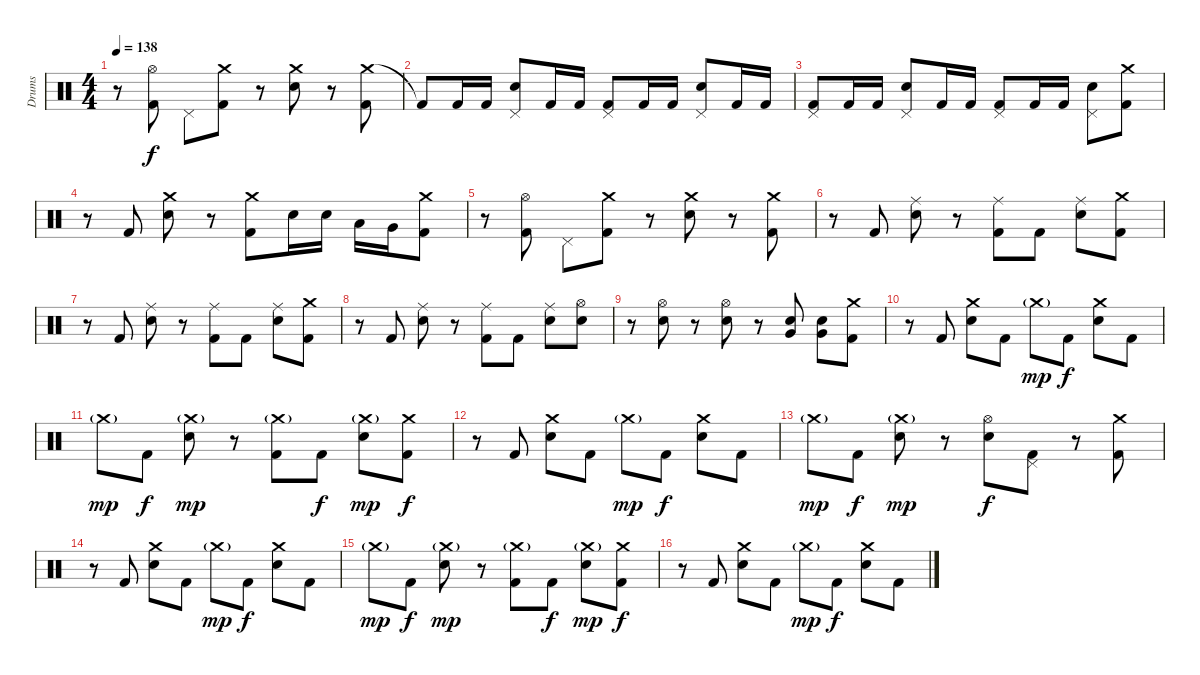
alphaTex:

\track ("Drums" "Drums") {instrument percussion}
\staff {score}
\articulation defaults
\ts (4 4)
\tempo 138
\clef neutral
\ks c
r.8{dy f} ("Hi-Hat (open)" "Kick (hit) 2").8 "Pedal Hi-Hat (hit)".8 ("Crash medium (hit)" "Kick (hit) 2").8 r.8 ("Crash medium (hit)" "Electric Snare (hit)").8 r.8 ("Crash medium (hit)" "Kick (hit) 2").8 |
"Kick (hit) 2"{t}.8 "Kick (hit) 2".16 "Kick (hit) 2".16 ("Pedal Hi-Hat (hit)" "Electric Snare (hit)").8 "Kick (hit) 2".16 "Kick (hit) 2".16 ("Pedal Hi-Hat (hit)" "Kick (hit) 2").8 "Kick (hit) 2".16 "Kick (hit) 2".16 ("Pedal Hi-Hat (hit)" "Electric Snare (hit)").8 "Kick (hit) 2".16 "Kick (hit) 2".16 |
("Pedal Hi-Hat (hit)" "Kick (hit) 2").8 "Kick (hit) 2".16 "Kick (hit) 2".16 ("Pedal Hi-Hat (hit)" "Electric Snare (hit)").8 "Kick (hit) 2".16 "Kick (hit) 2".16 ("Pedal Hi-Hat (hit)" "Kick (hit) 2").8 "Kick (hit) 2".16 "Kick (hit) 2".16 ("Pedal Hi-Hat (hit)" "Electric Snare (hit)").8 ("Crash medium (hit)" "Kick (hit) 2").8 |
r.8 "Kick (hit) 2".8 ("Crash medium (hit)" "Electric Snare (hit)").8 r.8 ("Crash medium (hit)" "Kick (hit) 2").8 "Electric Snare (hit)".16 "Electric Snare (hit)".16 "Low Tom (hit)".16 "Very Low Tom (hit)".16 ("Crash medium (hit)" "Kick (hit) 2").8 |
r.8 ("Hi-Hat (open)" "Kick (hit) 2").8 "Pedal Hi-Hat (hit)".8 ("Crash medium (hit)" "Kick (hit) 2").8 r.8 ("Crash medium (hit)" "Electric Snare (hit)").8 r.8 ("Crash medium (hit)" "Kick (hit) 2").8 |
r.8 "Kick (hit) 2".8 ("Ride (middle)" "Electric Snare (hit)").8 r.8 ("Ride (middle)" "Kick (hit) 2").8 "Kick (hit) 2".8 ("Ride (middle)" "Electric Snare (hit)").8 ("Crash medium (hit)" "Kick (hit) 2").8 |
r.8 "Kick (hit) 2".8 ("Ride (middle)" "Electric Snare (hit)").8 r.8 ("Ride (middle)" "Kick (hit) 2").8 "Kick (hit) 2".8 ("Ride (middle)" "Electric Snare (hit)").8 ("Crash medium (hit)" "Kick (hit) 2").8 |
r.8 "Kick (hit) 2".8 ("Ride (middle)" "Electric Snare (hit)").8 r.8 ("Ride (middle)" "Kick (hit) 2").8 "Kick (hit) 2".8 ("Ride (middle)" "Electric Snare (hit)").8 ("Hi-Hat (open)" "Electric Snare (hit)").8 |
r.8 ("Hi-Hat (open)" "Electric Snare (hit)").8 r.8 ("Hi-Hat (open)" "Electric Snare (hit)").8 r.8 ("Very Low Tom (hit)" "Electric Snare (hit)").8 ("Very Low Tom (hit)" "Electric Snare (hit)").8 ("Crash medium (hit)" "Kick (hit) 2").8 |
r.8 "Kick (hit) 2".8 ("Crash medium (hit)" "Electric Snare (hit)").8 "Kick (hit) 2".8 "Crash medium (hit)"{g}.8{dy mp} "Kick (hit) 2".8{dy f} ("Crash medium (hit)" "Electric Snare (hit)").8 "Kick (hit) 2".8 |
"Crash medium (hit)"{g}.8{dy mp} "Kick (hit) 2".8{dy f} ("Crash medium (hit)"{g} "Electric Snare (hit)").8{dy mp} r.8 ("Crash medium (hit)"{g} "Kick (hit) 2").8 "Kick (hit) 2".8{dy f} ("Crash medium (hit)"{g} "Electric Snare (hit)").8{dy mp} ("Crash medium (hit)" "Kick (hit) 2").8{dy f} |
r.8 "Kick (hit) 2".8 ("Crash medium (hit)" "Electric Snare (hit)").8 "Kick (hit) 2".8 "Crash medium (hit)"{g}.8{dy mp} "Kick (hit) 2".8{dy f} ("Crash medium (hit)" "Electric Snare (hit)").8 "Kick (hit) 2".8 |
"Crash medium (hit)"{g}.8{dy mp} "Kick (hit) 2".8{dy f} ("Crash medium (hit)"{g} "Electric Snare (hit)").8{dy mp} r.8 ("Hi-Hat (open)" "Electric Snare (hit)").8{dy f} ("Pedal Hi-Hat (hit)" "Kick (hit) 2").8 r.8 ("Crash medium (hit)" "Kick (hit) 2").8 |
r.8 "Kick (hit) 2".8 ("Crash medium (hit)" "Electric Snare (hit)").8 "Kick (hit) 2".8 "Crash medium (hit)"{g}.8{dy mp} "Kick (hit) 2".8{dy f} ("Crash medium (hit)" "Electric Snare (hit)").8 "Kick (hit) 2".8 |
"Crash medium (hit)"{g}.8{dy mp} "Kick (hit) 2".8{dy f} ("Crash medium (hit)"{g} "Electric Snare (hit)").8{dy mp} r.8 ("Crash medium (hit)"{g} "Kick (hit) 2").8 "Kick (hit) 2".8{dy f} ("Crash medium (hit)"{g} "Electric Snare (hit)").8{dy mp} ("Crash medium (hit)" "Kick (hit) 2").8{dy f} |
r.8 "Kick (hit) 2".8 ("Crash medium (hit)" "Electric Snare (hit)").8 "Kick (hit) 2".8 "Crash medium (hit)"{g}.8{dy mp} "Kick (hit) 2".8{dy f} ("Crash medium (hit)" "Electric Snare (hit)").8 "Kick (hit) 2".8
